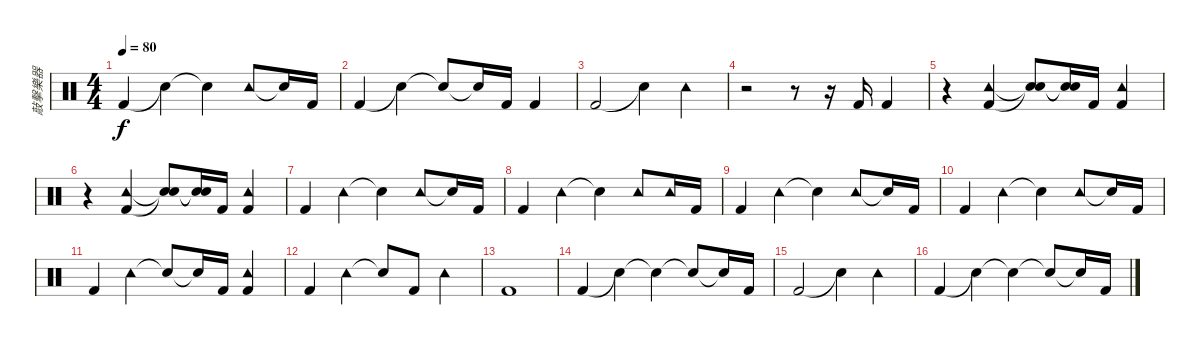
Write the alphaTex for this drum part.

\track ("敲擊樂器" "敲擊樂器") {instrument percussion}
\staff {score}
\articulation defaults
\ts (4 4)
\tempo 80
\clef neutral
\ks c "Kick (hit) 2".4{dy f} "Snare (hit)"{t}.4 "Snare (hit)"{t}.4 "Tambourine (hit)".8 "Snare (hit)"{t}.16 "Kick (hit) 2".16
|
"Kick (hit) 2".4 "Snare (hit)"{t}.4 "Snare (hit)"{t}.8 "Snare (hit)"{t}.16 "Kick (hit) 2".16 "Kick (hit) 2".4 |
"Kick (hit) 2".2 "Snare (hit)"{t}.4 "Tambourine (hit)".4 |
r.2 r.8 r.16 "Kick (hit) 2".16 "Kick (hit) 2".4 |
r.4 ("Tambourine (hit)" "Kick (hit) 2").4 ("Snare (hit)"{t} "Snare (hit)"{t}).8 ("Snare (hit)"{t} "Snare (hit)"{t}).16 "Kick (hit) 2".16 ("Tambourine (hit)" "Kick (hit) 2").4 |
r.4 ("Tambourine (hit)" "Kick (hit) 2").4 ("Snare (hit)"{t} "Snare (hit)"{t}).8 ("Snare (hit)"{t} "Snare (hit)"{t}).16 "Kick (hit) 2".16 ("Tambourine (hit)" "Kick (hit) 2").4 |
"Kick (hit) 2".4 "Tambourine (hit)".4 "Snare (hit)"{t}.4 "Tambourine (hit)".8 "Snare (hit)"{t}.16 "Kick (hit) 2".16 |
"Kick (hit) 2".4 "Tambourine (hit)".4 "Snare (hit)"{t}.4 "Tambourine (hit)".8 "Tambourine (hit)".16 "Kick (hit) 2".16 |
"Kick (hit) 2".4 "Tambourine (hit)".4 "Snare (hit)"{t}.4 "Tambourine (hit)".8 "Snare (hit)"{t}.16 "Kick (hit) 2".16 |
"Kick (hit) 2".4 "Tambourine (hit)".4 "Snare (hit)"{t}.4 "Tambourine (hit)".8 "Snare (hit)"{t}.16 "Kick (hit) 2".16 |
"Kick (hit) 2".4 "Tambourine (hit)".4 "Snare (hit)"{t}.8 "Snare (hit)"{t}.16 "Kick (hit) 2".16 ("Tambourine (hit)" "Kick (hit) 2").4 |
"Kick (hit) 2".4 "Tambourine (hit)".4 "Snare (hit)"{t}.8 "Kick (hit) 2".8 "Tambourine (hit)".4 |
"Kick (hit) 2".1 |
"Kick (hit) 2".4 "Snare (hit)"{t}.4 "Snare (hit)"{t}.4 "Snare (hit)"{t}.8 "Snare (hit)"{t}.16 "Kick (hit) 2".16 |
"Kick (hit) 2".2 "Snare (hit)"{t}.4 "Tambourine (hit)".4 |
"Kick (hit) 2".4 "Snare (hit)"{t}.4 "Snare (hit)"{t}.4 "Snare (hit)"{t}.8 "Snare (hit)"{t}.16 "Kick (hit) 2".16
